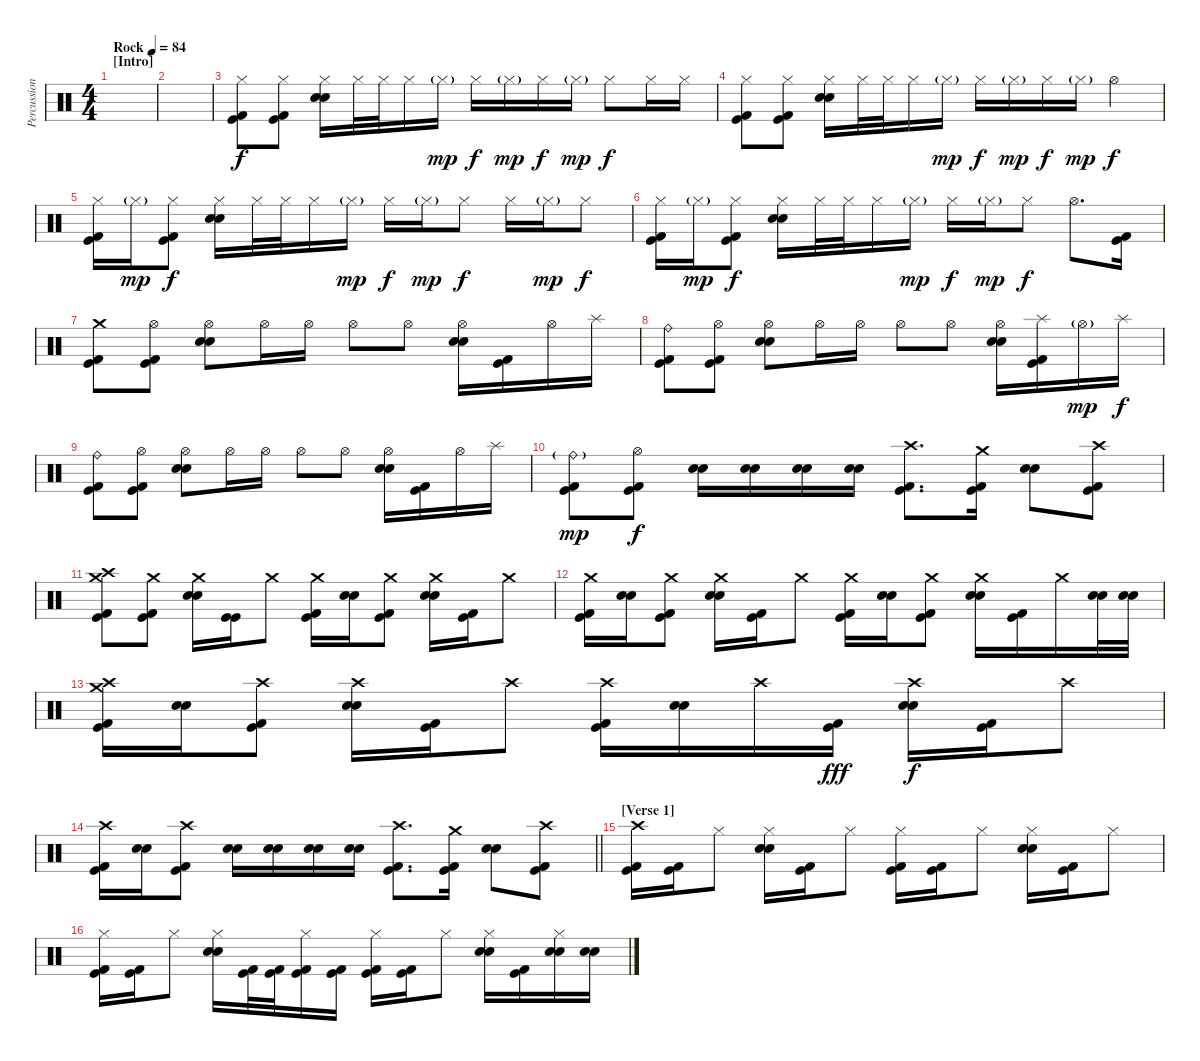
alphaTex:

\track ("Percussion" "Percussion") {instrument percussion}
\staff {score}
\articulation defaults
\ts (4 4)
\section ("" "[Intro]")
\tempo (84 "Rock")
\clef neutral
\ks c
|
|
("Hi-Hat (closed)" "Kick (hit)" "Kick (hit) 2").8 ("Hi-Hat (closed)" "Kick (hit)" "Kick (hit) 2").8 ("Hi-Hat (closed)" "Electric Snare (hit)" "Snare (hit) 2").16 "Hi-Hat (closed)".32 "Hi-Hat (closed)".32 "Hi-Hat (closed)".16 "Hi-Hat (closed)"{g}.16{dy mp} "Hi-Hat (closed)".16{dy f} "Hi-Hat (closed)"{g}.16{dy mp} "Hi-Hat (closed)".16{dy f} "Hi-Hat (closed)"{g}.16{dy mp} "Hi-Hat (closed)".8{dy f} "Hi-Hat (closed)".16 "Hi-Hat (closed)".16 |
("Hi-Hat (closed)" "Kick (hit)" "Kick (hit) 2").8 ("Hi-Hat (closed)" "Kick (hit)" "Kick (hit) 2").8 ("Hi-Hat (closed)" "Electric Snare (hit)" "Snare (hit) 2").16 "Hi-Hat (closed)".32 "Hi-Hat (closed)".32 "Hi-Hat (closed)".16 "Hi-Hat (closed)"{g}.16{dy mp} "Hi-Hat (closed)".16{dy f} "Hi-Hat (closed)"{g}.16{dy mp} "Hi-Hat (closed)".16{dy f} "Hi-Hat (closed)"{g}.16{dy mp} "Hi-Hat (open)".4{dy f} |
("Hi-Hat (closed)" "Kick (hit)" "Kick (hit) 2").16 "Hi-Hat (closed)"{g}.16{dy mp} ("Hi-Hat (closed)" "Kick (hit)" "Kick (hit) 2").8{dy f} ("Hi-Hat (closed)" "Electric Snare (hit)" "Snare (hit) 2").16 "Hi-Hat (closed)".32 "Hi-Hat (closed)".32 "Hi-Hat (closed)".16 "Hi-Hat (closed)"{g}.16{dy mp} "Hi-Hat (closed)".16{dy f} "Hi-Hat (closed)"{g}.16{dy mp} "Hi-Hat (closed)".8{dy f} "Hi-Hat (closed)".16 "Hi-Hat (closed)"{g}.16{dy mp} "Hi-Hat (closed)".8{dy f} |
("Hi-Hat (closed)" "Kick (hit)" "Kick (hit) 2").16 "Hi-Hat (closed)"{g}.16{dy mp} ("Hi-Hat (closed)" "Kick (hit)" "Kick (hit) 2").8{dy f} ("Hi-Hat (closed)" "Electric Snare (hit)" "Snare (hit) 2").16 "Hi-Hat (closed)".32 "Hi-Hat (closed)".32 "Hi-Hat (closed)".16 "Hi-Hat (closed)"{g}.16{dy mp} "Hi-Hat (closed)".16{dy f} "Hi-Hat (closed)"{g}.16{dy mp} "Hi-Hat (closed)".8{dy f} "Hi-Hat (open)".8{d} ("Kick (hit)" "Kick (hit) 2").16 |
("Crash medium (hit)" "Kick (hit)" "Kick (hit) 2").8 ("Hi-Hat (open)" "Kick (hit)" "Kick (hit) 2").8 ("Hi-Hat (open)" "Electric Snare (hit)" "Snare (hit) 2").8 "Hi-Hat (open)".16 "Hi-Hat (open)".16 "Hi-Hat (open)".8 "Hi-Hat (open)".8 ("Hi-Hat (open)" "Electric Snare (hit)" "Snare (hit) 2").16 ("Kick (hit)" "Kick (hit) 2").16 "Hi-Hat (open)".16 "Splash (hit)".16 |
("Ride (bell)" "Kick (hit)" "Kick (hit) 2").8 ("Hi-Hat (open)" "Kick (hit)" "Kick (hit) 2").8 ("Hi-Hat (open)" "Electric Snare (hit)" "Snare (hit) 2").8 "Hi-Hat (open)".16 "Hi-Hat (open)".16 "Hi-Hat (open)".8 "Hi-Hat (open)".8 ("Hi-Hat (open)" "Electric Snare (hit)" "Snare (hit) 2").16 ("Splash (hit)" "Kick (hit)" "Kick (hit) 2").16 "Hi-Hat (open)"{g}.16{dy mp} "Splash (hit)".16{dy f} |
("Ride (bell)" "Kick (hit)" "Kick (hit) 2").8 ("Hi-Hat (open)" "Kick (hit)" "Kick (hit) 2").8 ("Hi-Hat (open)" "Electric Snare (hit)" "Snare (hit) 2").8 "Hi-Hat (open)".16 "Hi-Hat (open)".16 "Hi-Hat (open)".8 "Hi-Hat (open)".8 ("Hi-Hat (open)" "Electric Snare (hit)" "Snare (hit) 2").16 ("Kick (hit)" "Kick (hit) 2").16 "Hi-Hat (open)".16 "Splash (hit)".16 |
("Ride (bell)"{g} "Kick (hit)" "Kick (hit) 2").8{dy mp} ("Hi-Hat (open)" "Kick (hit)" "Kick (hit) 2").8{dy f} ("Electric Snare (hit)" "Snare (hit) 2").16 ("Electric Snare (hit)" "Snare (hit) 2").16 ("Electric Snare (hit)" "Snare (hit) 2").16 ("Electric Snare (hit)" "Snare (hit) 2").16 ("Crash high (hit)" "Kick (hit)" "Kick (hit) 2").8{d} ("Crash medium (hit)" "Kick (hit)" "Kick (hit) 2").16 ("Electric Snare (hit)" "Snare (hit) 2").8 ("Crash high (hit)" "Kick (hit)" "Kick (hit) 2").8 |
("Crash medium (hit)" "Crash high (hit)" "Kick (hit)" "Kick (hit) 2").8 ("Crash medium (hit)" "Kick (hit)" "Kick (hit) 2").8 ("Crash medium (hit)" "Electric Snare (hit)" "Snare (hit) 2").16 ("Kick (hit)" "Kick (hit)").16 "Crash medium (hit)".8 ("Crash medium (hit)" "Kick (hit)" "Kick (hit) 2").16 ("Electric Snare (hit)" "Snare (hit) 2").16 ("Crash medium (hit)" "Kick (hit)" "Kick (hit) 2").8 ("Crash medium (hit)" "Electric Snare (hit)" "Snare (hit) 2").16 ("Kick (hit)" "Kick (hit) 2").16 "Crash medium (hit)".8 |
("Crash medium (hit)" "Kick (hit)" "Kick (hit) 2").16 ("Electric Snare (hit)" "Snare (hit) 2").16 ("Crash medium (hit)" "Kick (hit)" "Kick (hit) 2").8 ("Crash medium (hit)" "Electric Snare (hit)" "Snare (hit) 2").16 ("Kick (hit)" "Kick (hit) 2").16 "Crash medium (hit)".8 ("Crash medium (hit)" "Kick (hit)" "Kick (hit) 2").16 ("Electric Snare (hit)" "Snare (hit) 2").16 ("Crash medium (hit)" "Kick (hit)" "Kick (hit) 2").8 ("Crash medium (hit)" "Electric Snare (hit)" "Snare (hit) 2").16 ("Kick (hit)" "Kick (hit) 2").16 "Crash medium (hit)".16 ("Electric Snare (hit)" "Snare (hit) 2").32 ("Electric Snare (hit)" "Snare (hit) 2").32 |
("Crash high (hit)" "Crash medium (hit)" "Kick (hit)" "Kick (hit) 2").16 ("Electric Snare (hit)" "Snare (hit) 2").16 ("Crash high (hit)" "Kick (hit)" "Kick (hit) 2").8 ("Crash high (hit)" "Electric Snare (hit)" "Snare (hit) 2").16 ("Kick (hit)" "Kick (hit) 2").16 "Crash high (hit)".8 ("Crash high (hit)" "Kick (hit)" "Kick (hit) 2").16 ("Electric Snare (hit)" "Snare (hit) 2").16 "Crash high (hit)".16 ("Kick (hit)" "Kick (hit) 2").16{dy fff} ("Crash high (hit)" "Electric Snare (hit)" "Snare (hit) 2").16{dy f} ("Kick (hit)" "Kick (hit) 2").16 "Crash high (hit)".8 |
\barLineRight lightlight
("Crash high (hit)" "Kick (hit)" "Kick (hit) 2").16 ("Electric Snare (hit)" "Snare (hit) 2").16 ("Crash high (hit)" "Kick (hit)" "Kick (hit) 2").8 ("Electric Snare (hit)" "Snare (hit) 2").16 ("Electric Snare (hit)" "Snare (hit) 2").16 ("Electric Snare (hit)" "Snare (hit) 2").16 ("Electric Snare (hit)" "Snare (hit) 2").16 ("Crash high (hit)" "Kick (hit)" "Kick (hit) 2").8{d} ("Crash medium (hit)" "Kick (hit)" "Kick (hit) 2").16 ("Electric Snare (hit)" "Snare (hit) 2").8 ("Crash high (hit)" "Kick (hit)" "Kick (hit) 2").8 |
\section ("" "[Verse 1]")
("Crash high (hit)" "Kick (hit)" "Kick (hit) 2").16 ("Kick (hit)" "Kick (hit) 2").16 "Hi-Hat (closed)".8 ("Hi-Hat (closed)" "Electric Snare (hit)" "Snare (hit) 2").16 ("Kick (hit)" "Kick (hit) 2").16 "Hi-Hat (closed)".8 ("Hi-Hat (closed)" "Kick (hit)" "Kick (hit) 2").16 ("Kick (hit)" "Kick (hit) 2").16 "Hi-Hat (closed)".8 ("Hi-Hat (closed)" "Electric Snare (hit)" "Snare (hit) 2").16 ("Kick (hit)" "Kick (hit) 2").16 "Hi-Hat (closed)".8 |
("Hi-Hat (closed)" "Kick (hit)" "Kick (hit) 2").16 ("Kick (hit)" "Kick (hit) 2").16 "Hi-Hat (closed)".8 ("Hi-Hat (closed)" "Electric Snare (hit)" "Snare (hit) 2").16 ("Kick (hit)" "Kick (hit) 2").32 ("Kick (hit)" "Kick (hit) 2").32 ("Hi-Hat (closed)" "Kick (hit)" "Kick (hit) 2").16 ("Kick (hit)" "Kick (hit) 2").16 ("Hi-Hat (closed)" "Kick (hit)" "Kick (hit) 2").16 ("Kick (hit)" "Kick (hit) 2").16 "Hi-Hat (closed)".8 ("Hi-Hat (closed)" "Electric Snare (hit)" "Snare (hit) 2").16 ("Kick (hit)" "Kick (hit) 2").16 ("Hi-Hat (closed)" "Electric Snare (hit)" "Snare (hit) 2").16 ("Electric Snare (hit)" "Snare (hit) 2").16
